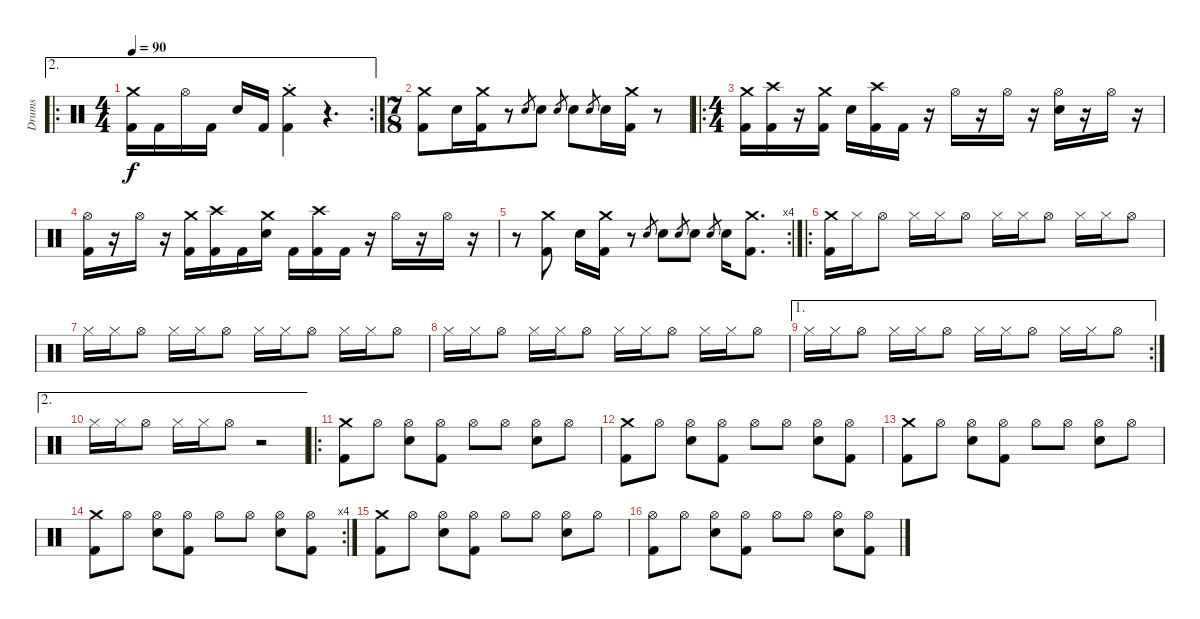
\track ("Drums" "Drums") {instrument percussion}
\staff {score}
\articulation defaults
\ae 2
\ro
\rc 2
\ts (4 4)
\tempo 90
\clef neutral
\ks c
("Crash medium (hit)" "Kick (hit) 2").16{dy f volume 13} "Kick (hit) 2".16 "Hi-Hat (open)".16 "Kick (hit) 2".16 "Snare (hit) 2".16 "Kick (hit) 2".16 ("Crash medium (hit)"{st} "Kick (hit) 2").4 r.4{d volume 0} |
\ts (7 8)
("Crash medium (hit)" "Kick (hit) 2").8{volume 13} "Snare (hit) 2".16 ("Crash medium (hit)" "Kick (hit) 2").16 r.8 "Snare (hit) 2".8{gr} "Snare (hit) 2".8 "Snare (hit) 2".8{gr} "Snare (hit) 2".8 "Snare (hit) 2".8{gr} "Snare (hit) 2".16 ("Crash medium (hit)" "Kick (hit) 2").16 r.8 |
\ro
\ts (4 4)
("Crash medium (hit)" "Kick (hit) 2").16 ("Crash high (hit)" "Kick (hit) 2").16 r.16 ("Crash medium (hit)" "Kick (hit) 2").16 "Snare (hit) 2".16 ("Crash high (hit)" "Kick (hit) 2").16 "Kick (hit) 2".16 r.16 "Hi-Hat (open)".16 r.16 "Hi-Hat (open)".16 r.16 ("Hi-Hat (open)" "Snare (hit) 2").16 r.16 "Hi-Hat (open)".16 r.16 |
("Hi-Hat (open)" "Kick (hit) 2").16 r.16 "Hi-Hat (open)".16 r.16 ("Crash medium (hit)" "Kick (hit) 2").16 ("Crash high (hit)" "Kick (hit) 2").16 "Kick (hit) 2".16 ("Crash medium (hit)" "Snare (hit) 2").16 "Kick (hit) 2".16 ("Crash high (hit)" "Kick (hit) 2").16 "Kick (hit) 2".16 r.16 "Hi-Hat (open)".16 r.16 "Hi-Hat (open)".16 r.16 |
\rc 4
r.8 ("Crash medium (hit)" "Kick (hit) 2").8{volume 13} "Snare (hit) 2".16 ("Crash medium (hit)" "Kick (hit) 2").16 r.8 "Snare (hit) 2".8{gr} "Snare (hit) 2".8 "Snare (hit) 2".8{gr} "Snare (hit) 2".8 "Snare (hit) 2".8{gr} "Snare (hit) 2".16 ("Crash medium (hit)" "Kick (hit) 2").8{d} |
\ro
("Crash medium (hit)" "Kick (hit) 2").16 "Hi-Hat (closed)".16 "Hi-Hat (open)".8 "Hi-Hat (closed)".16 "Hi-Hat (closed)".16 "Hi-Hat (open)".8 "Hi-Hat (closed)".16 "Hi-Hat (closed)".16 "Hi-Hat (open)".8 "Hi-Hat (closed)".16 "Hi-Hat (closed)".16 "Hi-Hat (open)".8 |
"Hi-Hat (closed)".16 "Hi-Hat (closed)".16 "Hi-Hat (open)".8 "Hi-Hat (closed)".16 "Hi-Hat (closed)".16 "Hi-Hat (open)".8 "Hi-Hat (closed)".16 "Hi-Hat (closed)".16 "Hi-Hat (open)".8 "Hi-Hat (closed)".16 "Hi-Hat (closed)".16 "Hi-Hat (open)".8 |
"Hi-Hat (closed)".16 "Hi-Hat (closed)".16 "Hi-Hat (open)".8 "Hi-Hat (closed)".16 "Hi-Hat (closed)".16 "Hi-Hat (open)".8 "Hi-Hat (closed)".16 "Hi-Hat (closed)".16 "Hi-Hat (open)".8 "Hi-Hat (closed)".16 "Hi-Hat (closed)".16 "Hi-Hat (open)".8 |
\ae 1
\rc 2 "Hi-Hat (closed)".16 "Hi-Hat (closed)".16 "Hi-Hat (open)".8 "Hi-Hat (closed)".16 "Hi-Hat (closed)".16 "Hi-Hat (open)".8 "Hi-Hat (closed)".16 "Hi-Hat (closed)".16 "Hi-Hat (open)".8 "Hi-Hat (closed)".16 "Hi-Hat (closed)".16 "Hi-Hat (open)".8
|
\ae 2 "Hi-Hat (closed)".16 "Hi-Hat (closed)".16 "Hi-Hat (open)".8 "Hi-Hat (closed)".16 "Hi-Hat (closed)".16 "Hi-Hat (open)".8
r.2 |
\ro
("Crash medium (hit)" "Kick (hit) 2").8 "Hi-Hat (open)".8 ("Hi-Hat (open)" "Snare (hit) 2").8 ("Hi-Hat (open)" "Kick (hit) 2").8 "Hi-Hat (open)".8 "Hi-Hat (open)".8 ("Hi-Hat (open)" "Snare (hit) 2").8 "Hi-Hat (open)".8 |
("Crash medium (hit)" "Kick (hit) 2").8 "Hi-Hat (open)".8 ("Hi-Hat (open)" "Snare (hit) 2").8 ("Hi-Hat (open)" "Kick (hit) 2").8 "Hi-Hat (open)".8 "Hi-Hat (open)".8 ("Hi-Hat (open)" "Snare (hit) 2").8 ("Hi-Hat (open)" "Kick (hit) 2").8 |
("Crash medium (hit)" "Kick (hit) 2").8 "Hi-Hat (open)".8 ("Hi-Hat (open)" "Snare (hit) 2").8 ("Hi-Hat (open)" "Kick (hit) 2").8 "Hi-Hat (open)".8 "Hi-Hat (open)".8 ("Hi-Hat (open)" "Snare (hit) 2").8 "Hi-Hat (open)".8 |
\rc 4
("Crash medium (hit)" "Kick (hit) 2").8 "Hi-Hat (open)".8 ("Hi-Hat (open)" "Snare (hit) 2").8 ("Hi-Hat (open)" "Kick (hit) 2").8 "Hi-Hat (open)".8 "Hi-Hat (open)".8 ("Hi-Hat (open)" "Snare (hit) 2").8 ("Hi-Hat (open)" "Kick (hit) 2").8 |
("Crash medium (hit)" "Kick (hit) 2").8 "Hi-Hat (open)".8 ("Hi-Hat (open)" "Snare (hit) 2").8 ("Hi-Hat (open)" "Kick (hit) 2").8 "Hi-Hat (open)".8 "Hi-Hat (open)".8 ("Hi-Hat (open)" "Snare (hit) 2").8 "Hi-Hat (open)".8 |
("Hi-Hat (open)" "Kick (hit) 2").8 "Hi-Hat (open)".8 ("Hi-Hat (open)" "Snare (hit) 2").8 ("Hi-Hat (open)" "Kick (hit) 2").8 "Hi-Hat (open)".8 "Hi-Hat (open)".8 ("Hi-Hat (open)" "Snare (hit) 2").8 ("Hi-Hat (open)" "Kick (hit) 2").8
